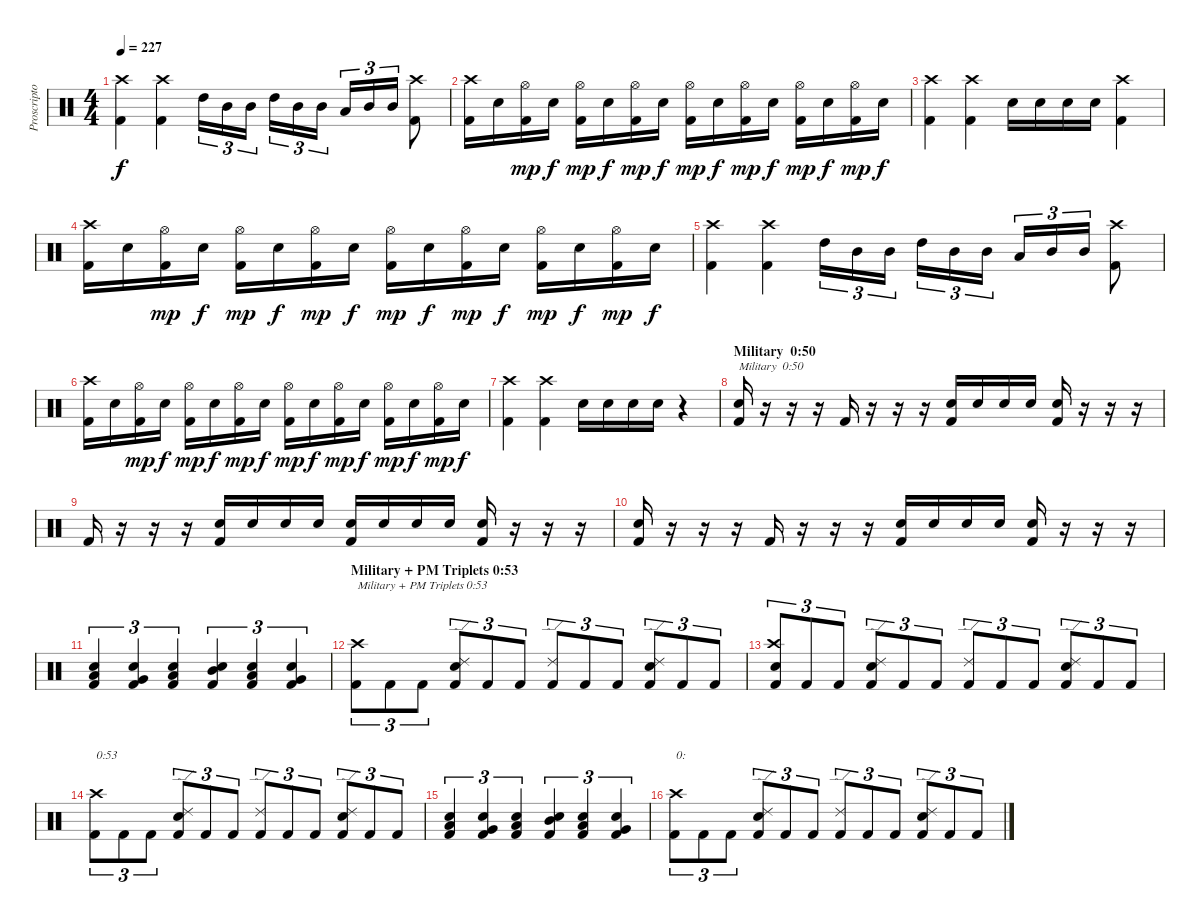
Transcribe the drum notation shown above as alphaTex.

\track ("Proscriptor (Drums)" "Proscripto") {instrument percussion}
\staff {score}
\articulation defaults
\ts (4 4)
\tempo 227
\clef neutral
\ks c
("Kick (hit) 2" "Crash high (hit)").4{dy f} ("Kick (hit) 2" "Crash high (hit)").4 "High Tom (hit)".16{tu (3 2)} "Mid Tom (hit)".16{tu (3 2)} "Mid Tom (hit)".16{tu (3 2)} "High Tom (hit)".16{tu (3 2)} "Mid Tom (hit)".16{tu (3 2)} "Mid Tom (hit)".16{tu (3 2)} "Low Tom (hit)".16{tu (3 2)} "Mid Tom (hit)".16{tu (3 2)} "Mid Tom (hit)".16{tu (3 2)} ("Kick (hit) 2" "Crash high (hit)").8 |
("Kick (hit) 2" "Crash high (hit)").16 "Electric Snare (hit)".16 ("Kick (hit) 2" "Hi-Hat (open)").16{dy mp} "Electric Snare (hit)".16{dy f} ("Kick (hit) 2" "Hi-Hat (open)").16{dy mp} "Electric Snare (hit)".16{dy f} ("Kick (hit) 2" "Hi-Hat (open)").16{dy mp} "Electric Snare (hit)".16{dy f} ("Kick (hit) 2" "Hi-Hat (open)").16{dy mp} "Electric Snare (hit)".16{dy f} ("Kick (hit) 2" "Hi-Hat (open)").16{dy mp} "Electric Snare (hit)".16{dy f} ("Kick (hit) 2" "Hi-Hat (open)").16{dy mp} "Electric Snare (hit)".16{dy f} ("Kick (hit) 2" "Hi-Hat (open)").16{dy mp} "Electric Snare (hit)".16{dy f} |
("Kick (hit) 2" "Crash high (hit)").4 ("Kick (hit) 2" "Crash high (hit)").4 "Electric Snare (hit)".16 "Electric Snare (hit)".16 "Electric Snare (hit)".16 "Electric Snare (hit)".16 ("Kick (hit) 2" "Crash high (hit)").4 |
("Kick (hit) 2" "Crash high (hit)").16 "Electric Snare (hit)".16 ("Kick (hit) 2" "Hi-Hat (open)").16{dy mp} "Electric Snare (hit)".16{dy f} ("Kick (hit) 2" "Hi-Hat (open)").16{dy mp} "Electric Snare (hit)".16{dy f} ("Kick (hit) 2" "Hi-Hat (open)").16{dy mp} "Electric Snare (hit)".16{dy f} ("Kick (hit) 2" "Hi-Hat (open)").16{dy mp} "Electric Snare (hit)".16{dy f} ("Kick (hit) 2" "Hi-Hat (open)").16{dy mp} "Electric Snare (hit)".16{dy f} ("Kick (hit) 2" "Hi-Hat (open)").16{dy mp} "Electric Snare (hit)".16{dy f} ("Kick (hit) 2" "Hi-Hat (open)").16{dy mp} "Electric Snare (hit)".16{dy f} |
("Kick (hit) 2" "Crash high (hit)").4 ("Kick (hit) 2" "Crash high (hit)").4 "High Tom (hit)".16{tu (3 2)} "Mid Tom (hit)".16{tu (3 2)} "Mid Tom (hit)".16{tu (3 2)} "High Tom (hit)".16{tu (3 2)} "Mid Tom (hit)".16{tu (3 2)} "Mid Tom (hit)".16{tu (3 2)} "Low Tom (hit)".16{tu (3 2)} "Mid Tom (hit)".16{tu (3 2)} "Mid Tom (hit)".16{tu (3 2)} ("Kick (hit) 2" "Crash high (hit)").8 |
("Kick (hit) 2" "Crash high (hit)").16 "Electric Snare (hit)".16 ("Kick (hit) 2" "Hi-Hat (open)").16{dy mp} "Electric Snare (hit)".16{dy f} ("Kick (hit) 2" "Hi-Hat (open)").16{dy mp} "Electric Snare (hit)".16{dy f} ("Kick (hit) 2" "Hi-Hat (open)").16{dy mp} "Electric Snare (hit)".16{dy f} ("Kick (hit) 2" "Hi-Hat (open)").16{dy mp} "Electric Snare (hit)".16{dy f} ("Kick (hit) 2" "Hi-Hat (open)").16{dy mp} "Electric Snare (hit)".16{dy f} ("Kick (hit) 2" "Hi-Hat (open)").16{dy mp} "Electric Snare (hit)".16{dy f} ("Kick (hit) 2" "Hi-Hat (open)").16{dy mp} "Electric Snare (hit)".16{dy f} |
("Kick (hit) 2" "Crash high (hit)").4 ("Kick (hit) 2" "Crash high (hit)").4 "Electric Snare (hit)".16 "Electric Snare (hit)".16 "Electric Snare (hit)".16 "Electric Snare (hit)".16 r.4 |
\section ("" "Military  0:50")
("Kick (hit) 2" "Electric Snare (hit)").16{txt "Military  0:50"} r.16 r.16 r.16 "Kick (hit) 2".16 r.16 r.16 r.16 ("Kick (hit) 2" "Electric Snare (hit)").16 "Electric Snare (hit)".16 "Electric Snare (hit)".16 "Electric Snare (hit)".16 ("Kick (hit) 2" "Electric Snare (hit)").16 r.16 r.16 r.16 |
"Kick (hit) 2".16 r.16 r.16 r.16 ("Kick (hit) 2" "Electric Snare (hit)").16 "Electric Snare (hit)".16 "Electric Snare (hit)".16 "Electric Snare (hit)".16 ("Kick (hit) 2" "Electric Snare (hit)").16 "Electric Snare (hit)".16 "Electric Snare (hit)".16 "Electric Snare (hit)".16 ("Kick (hit) 2" "Electric Snare (hit)").16 r.16 r.16 r.16 |
("Kick (hit) 2" "Electric Snare (hit)").16 r.16 r.16 r.16 "Kick (hit) 2".16 r.16 r.16 r.16 ("Kick (hit) 2" "Electric Snare (hit)").16 "Electric Snare (hit)".16 "Electric Snare (hit)".16 "Electric Snare (hit)".16 ("Kick (hit) 2" "Electric Snare (hit)").16 r.16 r.16 r.16 |
("Kick (hit) 2" "Low Floor Tom (hit)" "Electric Snare (hit)").4{tu (3 2)} ("Kick (hit) 2" "Very Low Tom (hit)" "Electric Snare (hit)").4{tu (3 2)} ("Kick (hit) 2" "Low Tom (hit)" "Electric Snare (hit)").4{tu (3 2)} ("Kick (hit) 2" "Mid Tom (hit)" "Electric Snare (hit)").4{tu (3 2)} ("Kick (hit) 2" "Low Tom (hit)" "Electric Snare (hit)").4{tu (3 2)} ("Kick (hit) 2" "Very Low Tom (hit)" "Electric Snare (hit)").4{tu (3 2)} |
\section ("" "Military + PM Triplets 0:53")
("Kick (hit) 2" "Crash high (hit)").8{tu (3 2) txt "Military + PM Triplets 0:53"} "Kick (hit) 2".8{tu (3 2)} "Kick (hit) 2".8{tu (3 2)} ("Kick (hit) 2" "Electric Snare (hit)" "Ride (edge) 2").8{tu (3 2)} "Kick (hit) 2".8{tu (3 2)} "Kick (hit) 2".8{tu (3 2)} ("Kick (hit) 2" "Ride (edge) 2").8{tu (3 2)} "Kick (hit) 2".8{tu (3 2)} "Kick (hit) 2".8{tu (3 2)} ("Kick (hit) 2" "Electric Snare (hit)" "Ride (edge) 2").8{tu (3 2)} "Kick (hit) 2".8{tu (3 2)} "Kick (hit) 2".8{tu (3 2)} |
("Kick (hit) 2" "Electric Snare (hit)" "Crash high (hit)").8{tu (3 2)} "Kick (hit) 2".8{tu (3 2)} "Kick (hit) 2".8{tu (3 2)} ("Kick (hit) 2" "Electric Snare (hit)" "Ride (edge) 2").8{tu (3 2)} "Kick (hit) 2".8{tu (3 2)} "Kick (hit) 2".8{tu (3 2)} ("Kick (hit) 2" "Ride (edge) 2").8{tu (3 2)} "Kick (hit) 2".8{tu (3 2)} "Kick (hit) 2".8{tu (3 2)} ("Kick (hit) 2" "Electric Snare (hit)" "Ride (edge) 2").8{tu (3 2)} "Kick (hit) 2".8{tu (3 2)} "Kick (hit) 2".8{tu (3 2)} |
("Kick (hit) 2" "Crash high (hit)").8{tu (3 2) txt "0:53"} "Kick (hit) 2".8{tu (3 2)} "Kick (hit) 2".8{tu (3 2)} ("Kick (hit) 2" "Electric Snare (hit)" "Ride (edge) 2").8{tu (3 2)} "Kick (hit) 2".8{tu (3 2)} "Kick (hit) 2".8{tu (3 2)} ("Kick (hit) 2" "Ride (edge) 2").8{tu (3 2)} "Kick (hit) 2".8{tu (3 2)} "Kick (hit) 2".8{tu (3 2)} ("Kick (hit) 2" "Electric Snare (hit)" "Ride (edge) 2").8{tu (3 2)} "Kick (hit) 2".8{tu (3 2)} "Kick (hit) 2".8{tu (3 2)} |
("Kick (hit) 2" "Low Floor Tom (hit)" "Electric Snare (hit)").4{tu (3 2)} ("Kick (hit) 2" "Very Low Tom (hit)" "Electric Snare (hit)").4{tu (3 2)} ("Kick (hit) 2" "Low Tom (hit)" "Electric Snare (hit)").4{tu (3 2)} ("Kick (hit) 2" "Mid Tom (hit)" "Electric Snare (hit)").4{tu (3 2)} ("Kick (hit) 2" "Low Tom (hit)" "Electric Snare (hit)").4{tu (3 2)} ("Kick (hit) 2" "Very Low Tom (hit)" "Electric Snare (hit)").4{tu (3 2)} |
("Kick (hit) 2" "Crash high (hit)").8{tu (3 2) txt "0:"} "Kick (hit) 2".8{tu (3 2)} "Kick (hit) 2".8{tu (3 2)} ("Kick (hit) 2" "Electric Snare (hit)" "Ride (edge) 2").8{tu (3 2)} "Kick (hit) 2".8{tu (3 2)} "Kick (hit) 2".8{tu (3 2)} ("Kick (hit) 2" "Ride (edge) 2").8{tu (3 2)} "Kick (hit) 2".8{tu (3 2)} "Kick (hit) 2".8{tu (3 2)} ("Kick (hit) 2" "Electric Snare (hit)" "Ride (edge) 2").8{tu (3 2)} "Kick (hit) 2".8{tu (3 2)} "Kick (hit) 2".8{tu (3 2)}
